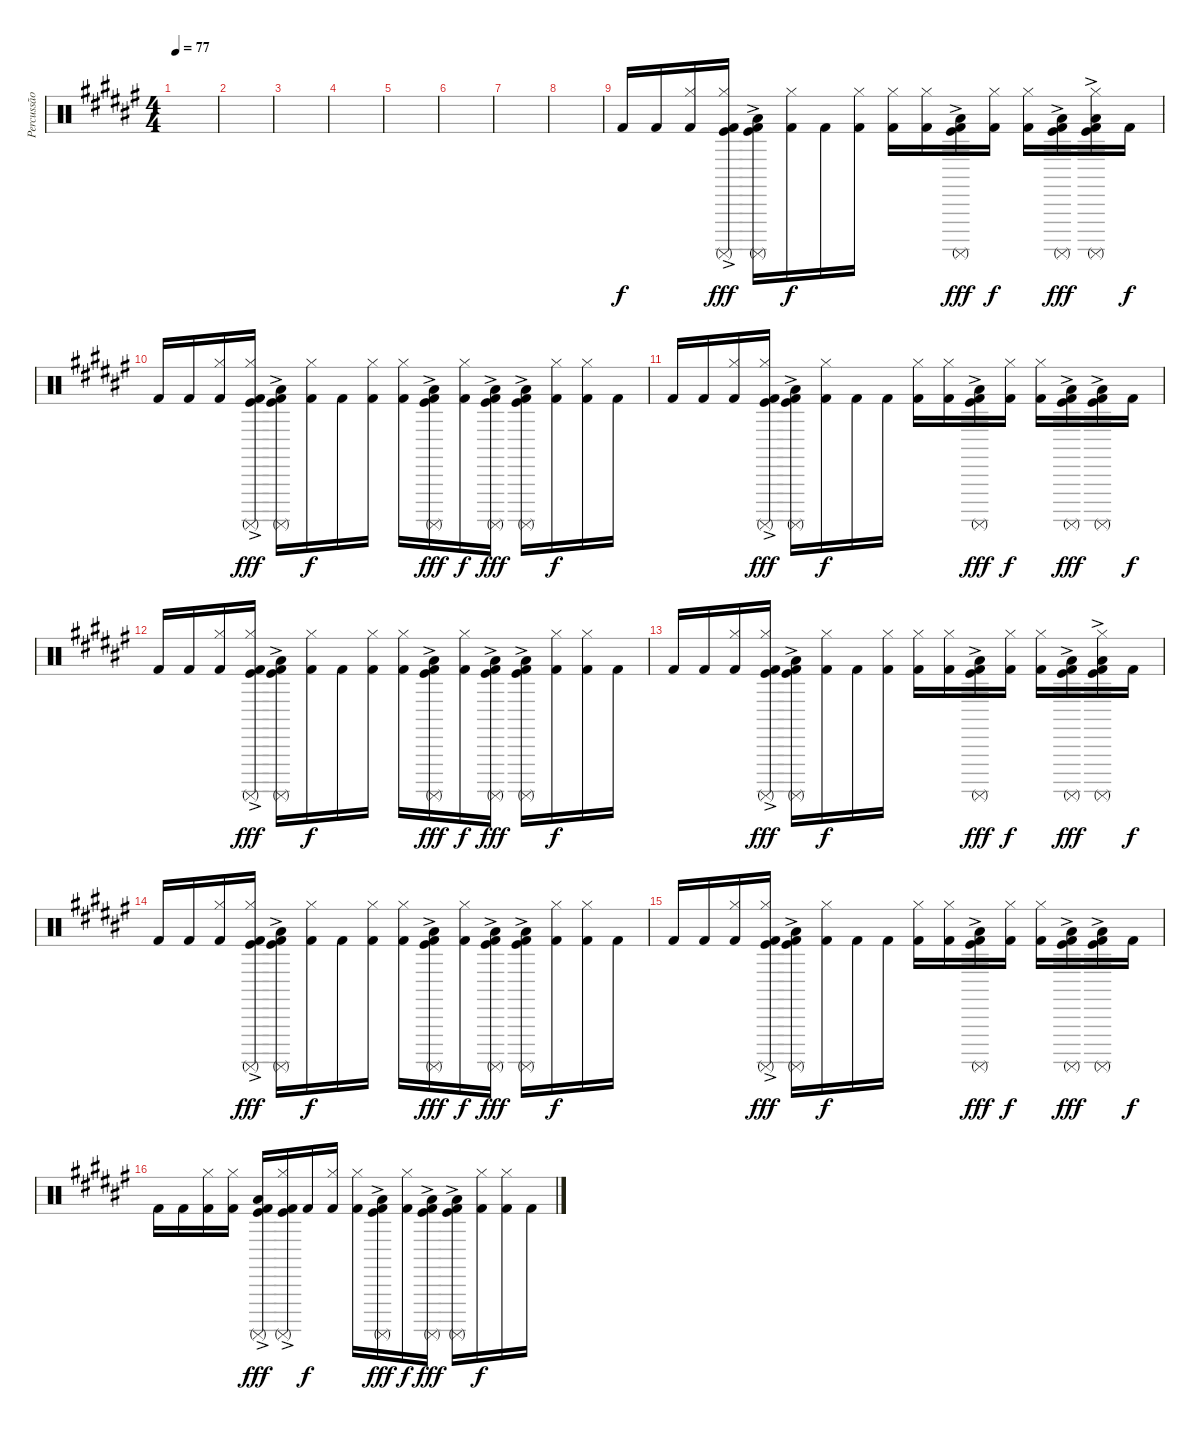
\track ("Percussão" "Percussão") {instrument percussion}
\staff {score}
\articulation defaults
\ts (4 4)
\tempo 77
\clef neutral
\ks d#minor
|
|
|
|
|
|
|
|
"Kick (hit) 2".16 "Kick (hit) 2".16 ("Kick (hit) 2" "Hi-Hat (closed)").16 ("Kick (hit)"{ac} "Kick (hit) 2" "Hi-Hat (closed)" "Surdo (mute)").16{dy fff} ("Kick (hit)"{ac} "Kick (hit) 2" "Low Floor Tom (hit)" "Surdo (mute)").16 ("Kick (hit) 2" "Hi-Hat (closed)").16{dy f} "Kick (hit) 2".16 ("Kick (hit) 2" "Hi-Hat (closed)").16 ("Kick (hit) 2" "Hi-Hat (closed)").16 ("Kick (hit) 2" "Hi-Hat (closed)").16 ("Kick (hit)" "Kick (hit) 2"{ac} "Low Floor Tom (hit)" "Surdo (mute)").16{dy fff} ("Kick (hit) 2" "Hi-Hat (closed)").16{dy f} ("Kick (hit) 2" "Hi-Hat (closed)").16 ("Kick (hit)" "Kick (hit) 2"{ac} "Low Floor Tom (hit)" "Surdo (mute)").16{dy fff} ("Kick (hit)" "Kick (hit) 2"{ac} "Hi-Hat (closed)" "Low Floor Tom (hit)" "Surdo (mute)").16 "Kick (hit) 2".16{dy f} |
"Kick (hit) 2".16 "Kick (hit) 2".16 ("Kick (hit) 2" "Hi-Hat (closed)").16 ("Kick (hit)"{ac} "Kick (hit) 2" "Hi-Hat (closed)" "Surdo (mute)").16{dy fff} ("Kick (hit)"{ac} "Kick (hit) 2" "Low Floor Tom (hit)" "Surdo (mute)").16 ("Kick (hit) 2" "Hi-Hat (closed)").16{dy f} "Kick (hit) 2".16 ("Kick (hit) 2" "Hi-Hat (closed)").16 ("Kick (hit) 2" "Hi-Hat (closed)").16 ("Kick (hit)" "Kick (hit) 2"{ac} "Low Floor Tom (hit)" "Surdo (mute)").16{dy fff} ("Kick (hit) 2" "Hi-Hat (closed)").16{dy f} ("Kick (hit)" "Kick (hit) 2"{ac} "Low Floor Tom (hit)" "Surdo (mute)").16{dy fff} ("Kick (hit)" "Kick (hit) 2"{ac} "Low Floor Tom (hit)" "Surdo (mute)").16 ("Kick (hit) 2" "Hi-Hat (closed)").16{dy f} ("Kick (hit) 2" "Hi-Hat (closed)").16 "Kick (hit) 2".16 |
"Kick (hit) 2".16 "Kick (hit) 2".16 ("Kick (hit) 2" "Hi-Hat (closed)").16 ("Kick (hit)"{ac} "Kick (hit) 2" "Hi-Hat (closed)" "Surdo (mute)").16{dy fff} ("Kick (hit)"{ac} "Kick (hit) 2" "Low Floor Tom (hit)" "Surdo (mute)").16 ("Kick (hit) 2" "Hi-Hat (closed)").16{dy f} "Kick (hit) 2".16 "Kick (hit) 2".16 ("Kick (hit) 2" "Hi-Hat (closed)").16 ("Kick (hit) 2" "Hi-Hat (closed)").16 ("Kick (hit)" "Kick (hit) 2"{ac} "Low Floor Tom (hit)" "Surdo (mute)").16{dy fff} ("Kick (hit) 2" "Hi-Hat (closed)").16{dy f} ("Kick (hit) 2" "Hi-Hat (closed)").16 ("Kick (hit)" "Kick (hit) 2"{ac} "Low Floor Tom (hit)" "Surdo (mute)").16{dy fff} ("Kick (hit)" "Kick (hit) 2"{ac} "Low Floor Tom (hit)" "Surdo (mute)").16 "Kick (hit) 2".16{dy f} |
"Kick (hit) 2".16 "Kick (hit) 2".16 ("Kick (hit) 2" "Hi-Hat (closed)").16 ("Kick (hit)"{ac} "Kick (hit) 2" "Hi-Hat (closed)" "Surdo (mute)").16{dy fff} ("Kick (hit)"{ac} "Kick (hit) 2" "Low Floor Tom (hit)" "Surdo (mute)").16 ("Kick (hit) 2" "Hi-Hat (closed)").16{dy f} "Kick (hit) 2".16 ("Kick (hit) 2" "Hi-Hat (closed)").16 ("Kick (hit) 2" "Hi-Hat (closed)").16 ("Kick (hit)" "Kick (hit) 2"{ac} "Low Floor Tom (hit)" "Surdo (mute)").16{dy fff} ("Kick (hit) 2" "Hi-Hat (closed)").16{dy f} ("Kick (hit)" "Kick (hit) 2"{ac} "Low Floor Tom (hit)" "Surdo (mute)").16{dy fff} ("Kick (hit)" "Kick (hit) 2"{ac} "Low Floor Tom (hit)" "Surdo (mute)").16 ("Kick (hit) 2" "Hi-Hat (closed)").16{dy f} ("Kick (hit) 2" "Hi-Hat (closed)").16 "Kick (hit) 2".16 |
"Kick (hit) 2".16 "Kick (hit) 2".16 ("Kick (hit) 2" "Hi-Hat (closed)").16 ("Kick (hit)"{ac} "Kick (hit) 2" "Hi-Hat (closed)" "Surdo (mute)").16{dy fff} ("Kick (hit)"{ac} "Kick (hit) 2" "Low Floor Tom (hit)" "Surdo (mute)").16 ("Kick (hit) 2" "Hi-Hat (closed)").16{dy f} "Kick (hit) 2".16 ("Kick (hit) 2" "Hi-Hat (closed)").16 ("Kick (hit) 2" "Hi-Hat (closed)").16 ("Kick (hit) 2" "Hi-Hat (closed)").16 ("Kick (hit)" "Kick (hit) 2"{ac} "Low Floor Tom (hit)" "Surdo (mute)").16{dy fff} ("Kick (hit) 2" "Hi-Hat (closed)").16{dy f} ("Kick (hit) 2" "Hi-Hat (closed)").16 ("Kick (hit)" "Kick (hit) 2"{ac} "Low Floor Tom (hit)" "Surdo (mute)").16{dy fff} ("Kick (hit)" "Kick (hit) 2"{ac} "Hi-Hat (closed)" "Low Floor Tom (hit)" "Surdo (mute)").16 "Kick (hit) 2".16{dy f} |
"Kick (hit) 2".16 "Kick (hit) 2".16 ("Kick (hit) 2" "Hi-Hat (closed)").16 ("Kick (hit)"{ac} "Kick (hit) 2" "Hi-Hat (closed)" "Surdo (mute)").16{dy fff} ("Kick (hit)"{ac} "Kick (hit) 2" "Low Floor Tom (hit)" "Surdo (mute)").16 ("Kick (hit) 2" "Hi-Hat (closed)").16{dy f} "Kick (hit) 2".16 ("Kick (hit) 2" "Hi-Hat (closed)").16 ("Kick (hit) 2" "Hi-Hat (closed)").16 ("Kick (hit)" "Kick (hit) 2"{ac} "Low Floor Tom (hit)" "Surdo (mute)").16{dy fff} ("Kick (hit) 2" "Hi-Hat (closed)").16{dy f} ("Kick (hit)" "Kick (hit) 2"{ac} "Low Floor Tom (hit)" "Surdo (mute)").16{dy fff} ("Kick (hit)" "Kick (hit) 2"{ac} "Low Floor Tom (hit)" "Surdo (mute)").16 ("Kick (hit) 2" "Hi-Hat (closed)").16{dy f} ("Kick (hit) 2" "Hi-Hat (closed)").16 "Kick (hit) 2".16 |
"Kick (hit) 2".16 "Kick (hit) 2".16 ("Kick (hit) 2" "Hi-Hat (closed)").16 ("Kick (hit)"{ac} "Kick (hit) 2" "Hi-Hat (closed)" "Surdo (mute)").16{dy fff} ("Kick (hit)"{ac} "Kick (hit) 2" "Low Floor Tom (hit)" "Surdo (mute)").16 ("Kick (hit) 2" "Hi-Hat (closed)").16{dy f} "Kick (hit) 2".16 "Kick (hit) 2".16 ("Kick (hit) 2" "Hi-Hat (closed)").16 ("Kick (hit) 2" "Hi-Hat (closed)").16 ("Kick (hit)" "Kick (hit) 2"{ac} "Low Floor Tom (hit)" "Surdo (mute)").16{dy fff} ("Kick (hit) 2" "Hi-Hat (closed)").16{dy f} ("Kick (hit) 2" "Hi-Hat (closed)").16 ("Kick (hit)" "Kick (hit) 2"{ac} "Low Floor Tom (hit)" "Surdo (mute)").16{dy fff} ("Kick (hit)" "Kick (hit) 2"{ac} "Low Floor Tom (hit)" "Surdo (mute)").16 "Kick (hit) 2".16{dy f} |
"Kick (hit) 2".16 "Kick (hit) 2".16 ("Kick (hit) 2" "Hi-Hat (closed)").16 ("Kick (hit) 2" "Hi-Hat (closed)").16 ("Kick (hit)"{ac} "Kick (hit) 2" "Low Floor Tom (hit)" "Surdo (mute)").16{dy fff} ("Kick (hit)"{ac} "Kick (hit) 2" "Hi-Hat (closed)" "Surdo (mute)").16 "Kick (hit) 2".16{dy f} ("Kick (hit) 2" "Hi-Hat (closed)").16 ("Kick (hit) 2" "Hi-Hat (closed)").16 ("Kick (hit)" "Kick (hit) 2"{ac} "Low Floor Tom (hit)" "Surdo (mute)").16{dy fff} ("Kick (hit) 2" "Hi-Hat (closed)").16{dy f} ("Kick (hit)" "Kick (hit) 2"{ac} "Low Floor Tom (hit)" "Surdo (mute)").16{dy fff} ("Kick (hit)" "Kick (hit) 2"{ac} "Low Floor Tom (hit)" "Surdo (mute)").16 ("Kick (hit) 2" "Hi-Hat (closed)").16{dy f} ("Kick (hit) 2" "Hi-Hat (closed)").16 "Kick (hit) 2".16
